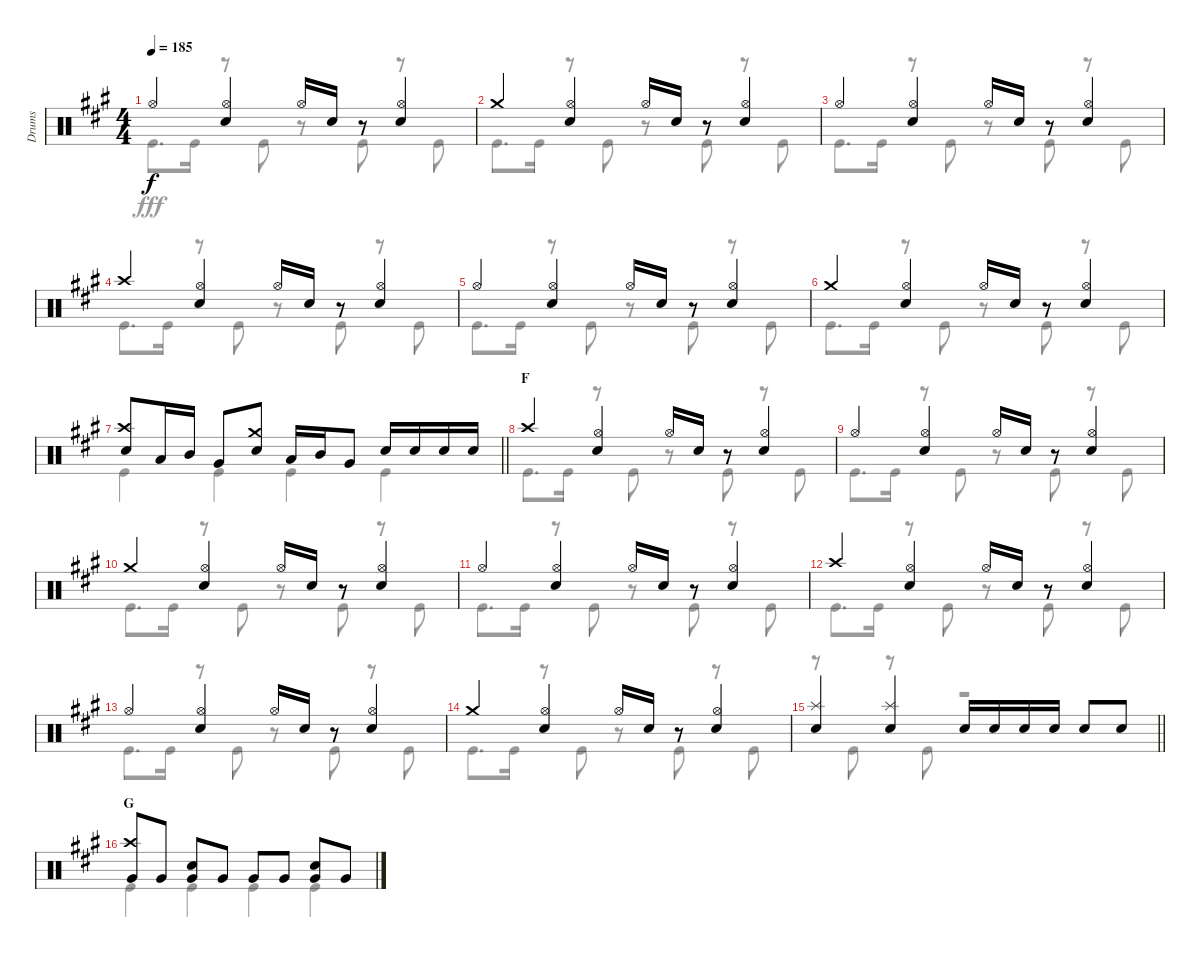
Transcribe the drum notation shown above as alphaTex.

\track ("Drums" "Drums") {instrument percussion}
\staff {score}
\articulation defaults
\voice
\ts (4 4)
\tempo 185
\clef neutral
\ks a "Hi-Hat (open)".4{dy f}
("Hi-Hat (open)" "Snare (hit) 2").4 "Hi-Hat (open)".16 "Snare (hit) 2".16 r.8 ("Hi-Hat (open)" "Snare (hit) 2").4 |
"Crash medium (hit)".4 ("Hi-Hat (open)" "Snare (hit) 2").4 "Hi-Hat (open)".16 "Snare (hit) 2".16 r.8 ("Hi-Hat (open)" "Snare (hit) 2").4 |
"Hi-Hat (open)".4 ("Hi-Hat (open)" "Snare (hit) 2").4 "Hi-Hat (open)".16 "Snare (hit) 2".16 r.8 ("Hi-Hat (open)" "Snare (hit) 2").4 |
"Crash high (hit)".4 ("Hi-Hat (open)" "Snare (hit) 2").4 "Hi-Hat (open)".16 "Snare (hit) 2".16 r.8 ("Hi-Hat (open)" "Snare (hit) 2").4 |
"Hi-Hat (open)".4 ("Hi-Hat (open)" "Snare (hit) 2").4 "Hi-Hat (open)".16 "Snare (hit) 2".16 r.8 ("Hi-Hat (open)" "Snare (hit) 2").4 |
"Crash medium (hit)".4 ("Hi-Hat (open)" "Snare (hit) 2").4 "Hi-Hat (open)".16 "Snare (hit) 2".16 r.8 ("Hi-Hat (open)" "Snare (hit) 2").4 |
\barLineRight lightlight
("Crash high (hit)" "Snare (hit) 2").8 "Low Tom (hit)".16 "Mid Tom (hit)".16 "Very Low Tom (hit)".8 ("Crash medium (hit)" "Snare (hit) 2").8 "Low Tom (hit)".16 "Mid Tom (hit)".16 "Very Low Tom (hit)".8 "Snare (hit) 2".16 "Snare (hit) 2".16 "Snare (hit) 2".16 "Snare (hit) 2".16 |
\section ("" "F")
"Crash high (hit)".4 ("Hi-Hat (open)" "Snare (hit) 2").4 "Hi-Hat (open)".16 "Snare (hit) 2".16 r.8 ("Hi-Hat (open)" "Snare (hit) 2").4 |
"Hi-Hat (open)".4 ("Hi-Hat (open)" "Snare (hit) 2").4 "Hi-Hat (open)".16 "Snare (hit) 2".16 r.8 ("Hi-Hat (open)" "Snare (hit) 2").4 |
"Crash medium (hit)".4 ("Hi-Hat (open)" "Snare (hit) 2").4 "Hi-Hat (open)".16 "Snare (hit) 2".16 r.8 ("Hi-Hat (open)" "Snare (hit) 2").4 |
"Hi-Hat (open)".4 ("Hi-Hat (open)" "Snare (hit) 2").4 "Hi-Hat (open)".16 "Snare (hit) 2".16 r.8 ("Hi-Hat (open)" "Snare (hit) 2").4 |
"Crash high (hit)".4 ("Hi-Hat (open)" "Snare (hit) 2").4 "Hi-Hat (open)".16 "Snare (hit) 2".16 r.8 ("Hi-Hat (open)" "Snare (hit) 2").4 |
"Hi-Hat (open)".4 ("Hi-Hat (open)" "Snare (hit) 2").4 "Hi-Hat (open)".16 "Snare (hit) 2".16 r.8 ("Hi-Hat (open)" "Snare (hit) 2").4 |
"Crash medium (hit)".4 ("Hi-Hat (open)" "Snare (hit) 2").4 "Hi-Hat (open)".16 "Snare (hit) 2".16 r.8 ("Hi-Hat (open)" "Snare (hit) 2").4 |
\barLineRight lightlight
("Splash (hit)" "Snare (hit) 2").4 ("Splash (hit)" "Snare (hit) 2").4 "Snare (hit) 2".16 "Snare (hit) 2".16 "Snare (hit) 2".16 "Snare (hit) 2".16 "Snare (hit) 2".8 "Snare (hit) 2".8 |
\section ("" "G")
("Crash high (hit)" "Very Low Tom (hit)").8 "Very Low Tom (hit)".8 ("Snare (hit) 2" "Very Low Tom (hit)").8 "Very Low Tom (hit)".8 "Very Low Tom (hit)".8 "Very Low Tom (hit)".8 ("Snare (hit) 2" "Very Low Tom (hit)").8 "Very Low Tom (hit)".8
\voice
\clef neutral
\ottava regular
\simile none
\ks a "Kick (hit)".8{d dy fff} "Kick (hit)".16
r.8 "Kick (hit)".8 r.8 "Kick (hit)".8 r.8 "Kick (hit)".8 |
"Kick (hit)".8{d} "Kick (hit)".16 r.8 "Kick (hit)".8 r.8 "Kick (hit)".8 r.8 "Kick (hit)".8 |
"Kick (hit)".8{d} "Kick (hit)".16 r.8 "Kick (hit)".8 r.8 "Kick (hit)".8 r.8 "Kick (hit)".8 |
"Kick (hit)".8{d} "Kick (hit)".16 r.8 "Kick (hit)".8 r.8 "Kick (hit)".8 r.8 "Kick (hit)".8 |
"Kick (hit)".8{d} "Kick (hit)".16 r.8 "Kick (hit)".8 r.8 "Kick (hit)".8 r.8 "Kick (hit)".8 |
"Kick (hit)".8{d} "Kick (hit)".16 r.8 "Kick (hit)".8 r.8 "Kick (hit)".8 r.8 "Kick (hit)".8 |
\barLineRight lightlight "Kick (hit)".4 "Kick (hit)".4 "Kick (hit)".4 "Kick (hit)".4
|
"Kick (hit)".8{d} "Kick (hit)".16 r.8 "Kick (hit)".8 r.8 "Kick (hit)".8 r.8 "Kick (hit)".8 |
"Kick (hit)".8{d} "Kick (hit)".16 r.8 "Kick (hit)".8 r.8 "Kick (hit)".8 r.8 "Kick (hit)".8 |
"Kick (hit)".8{d} "Kick (hit)".16 r.8 "Kick (hit)".8 r.8 "Kick (hit)".8 r.8 "Kick (hit)".8 |
"Kick (hit)".8{d} "Kick (hit)".16 r.8 "Kick (hit)".8 r.8 "Kick (hit)".8 r.8 "Kick (hit)".8 |
"Kick (hit)".8{d} "Kick (hit)".16 r.8 "Kick (hit)".8 r.8 "Kick (hit)".8 r.8 "Kick (hit)".8 |
"Kick (hit)".8{d} "Kick (hit)".16 r.8 "Kick (hit)".8 r.8 "Kick (hit)".8 r.8 "Kick (hit)".8 |
"Kick (hit)".8{d} "Kick (hit)".16 r.8 "Kick (hit)".8 r.8 "Kick (hit)".8 r.8 "Kick (hit)".8 |
\barLineRight lightlight
r.8 "Kick (hit)".8 r.8 "Kick (hit)".8 r.2 |
"Kick (hit)".4 "Kick (hit)".4 "Kick (hit)".4 "Kick (hit)".4
